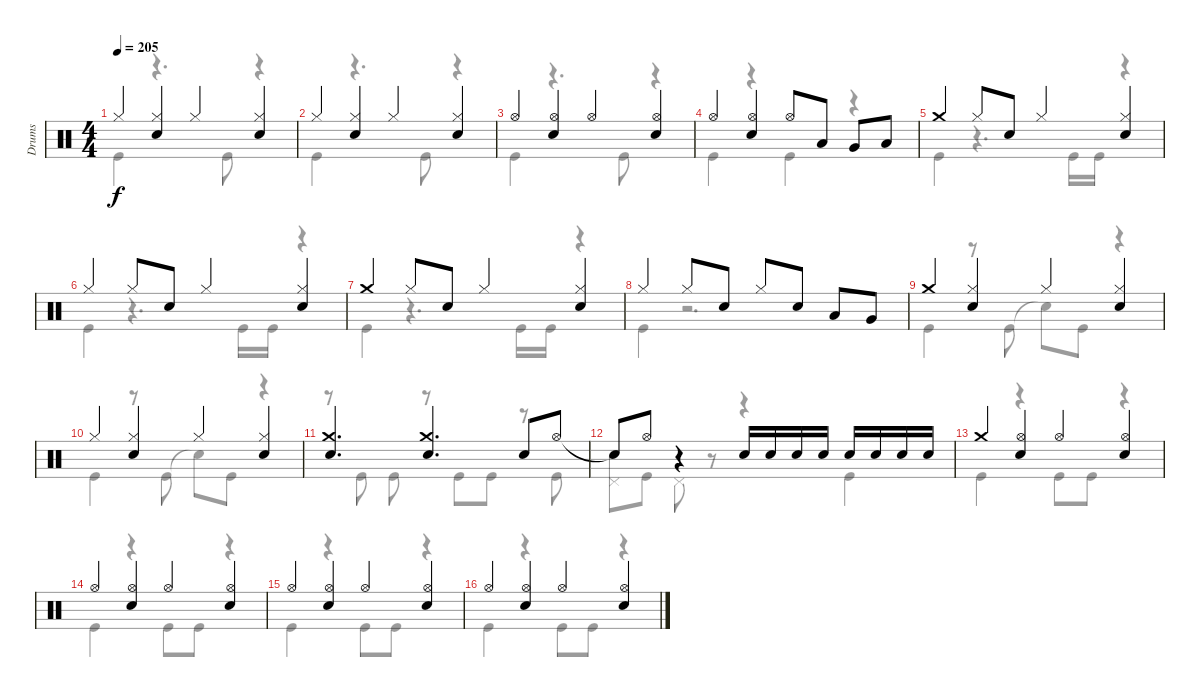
\track ("Drums" "Drums") {instrument percussion}
\staff {score}
\articulation defaults
\voice
\ts (4 4)
\tempo 205
\clef neutral
\ks c "Hi-Hat (closed)".4{dy f}
("Hi-Hat (closed)" "Snare (hit) 2").4 "Hi-Hat (closed)".4 ("Hi-Hat (closed)" "Snare (hit) 2").4 |
"Hi-Hat (closed)".4 ("Hi-Hat (closed)" "Snare (hit) 2").4 "Hi-Hat (closed)".4 ("Hi-Hat (closed)" "Snare (hit) 2").4 |
"Hi-Hat (open)".4 ("Hi-Hat (open)" "Snare (hit) 2").4 "Hi-Hat (open)".4 ("Hi-Hat (open)" "Snare (hit) 2").4 |
"Hi-Hat (open)".4 ("Hi-Hat (open)" "Snare (hit) 2").4 "Hi-Hat (open)".8 "Low Tom (hit)".8 "Very Low Tom (hit)".8 "Low Floor Tom (hit)".8 |
"Crash medium (hit)".4 "Hi-Hat (closed)".8 "Snare (hit) 2".8 "Hi-Hat (closed)".4 ("Hi-Hat (closed)" "Snare (hit) 2").4 |
"Hi-Hat (closed)".4 "Hi-Hat (closed)".8 "Snare (hit) 2".8 "Hi-Hat (closed)".4 ("Hi-Hat (closed)" "Snare (hit) 2").4 |
"Crash medium (hit)".4 "Hi-Hat (closed)".8 "Snare (hit) 2".8 "Hi-Hat (closed)".4 ("Hi-Hat (closed)" "Snare (hit) 2").4 |
"Hi-Hat (closed)".4 "Hi-Hat (closed)".8 "Snare (hit) 2".8 "Hi-Hat (closed)".8 "Snare (hit) 2".8 "Low Tom (hit)".8 "Very Low Tom (hit)".8 |
"Crash medium (hit)".4 ("Hi-Hat (closed)" "Snare (hit) 2").4 "Hi-Hat (closed)".4 ("Hi-Hat (closed)" "Snare (hit) 2").4 |
"Hi-Hat (closed)".4 ("Hi-Hat (closed)" "Snare (hit) 2").4 "Hi-Hat (closed)".4 ("Hi-Hat (closed)" "Snare (hit) 2").4 |
("Crash medium (hit)" "Snare (hit) 2").4{d} ("Crash medium (hit)" "Snare (hit) 2").4{d} "Snare (hit) 2".8 "Hi-Hat (open)".8 |
"Snare (hit)"{t}.8 "Hi-Hat (open)".8 r.4 "Snare (hit) 2".16 "Snare (hit) 2".16 "Snare (hit) 2".16 "Snare (hit) 2".16 "Snare (hit) 2".16 "Snare (hit) 2".16 "Snare (hit) 2".16 "Snare (hit) 2".16 |
"Crash medium (hit)".4 ("Hi-Hat (open)" "Snare (hit) 2").4 "Hi-Hat (open)".4 ("Hi-Hat (open)" "Snare (hit) 2").4 |
"Hi-Hat (open)".4 ("Hi-Hat (open)" "Snare (hit) 2").4 "Hi-Hat (open)".4 ("Hi-Hat (open)" "Snare (hit) 2").4 |
"Hi-Hat (open)".4 ("Hi-Hat (open)" "Snare (hit) 2").4 "Hi-Hat (open)".4 ("Hi-Hat (open)" "Snare (hit) 2").4 |
"Hi-Hat (open)".4 ("Hi-Hat (open)" "Snare (hit) 2").4 "Hi-Hat (open)".4 ("Hi-Hat (open)" "Snare (hit) 2").4
\voice
\clef neutral
\ottava regular
\simile none
\ks c "Kick (hit)".4{dy f}
r.4{d} "Kick (hit)".8 r.4 |
"Kick (hit)".4 r.4{d} "Kick (hit)".8 r.4 |
"Kick (hit)".4 r.4{d} "Kick (hit)".8 r.4 |
"Kick (hit)".4 r.4 "Kick (hit)".4 r.4 |
"Kick (hit)".4 r.4{d} "Kick (hit)".16 "Kick (hit)".16 r.4 |
"Kick (hit)".4 r.4{d} "Kick (hit)".16 "Kick (hit)".16 r.4 |
"Kick (hit)".4 r.4{d} "Kick (hit)".16 "Kick (hit)".16 r.4 |
"Kick (hit)".4 r.2{d} |
"Kick (hit)".4 r.8 "Kick (hit)".8 "Snare (hit)"{t}.8 "Kick (hit)".8 r.4 |
"Kick (hit)".4 r.8 "Kick (hit)".8 "Snare (hit)"{t}.8 "Kick (hit)".8 r.4 |
r.8 "Kick (hit)".8 "Kick (hit)".8 r.8 "Kick (hit)".8 "Kick (hit)".8 r.8 "Kick (hit)".8 |
("Pedal Hi-Hat (hit)" "Snare (hit)").8 "Kick (hit)".8 "Pedal Hi-Hat (hit)".8 r.8 r.4 "Kick (hit)".4 |
"Kick (hit)".4 r.4 "Kick (hit)".8 "Kick (hit)".8 r.4 |
"Kick (hit)".4 r.4 "Kick (hit)".8 "Kick (hit)".8 r.4 |
"Kick (hit)".4 r.4 "Kick (hit)".8 "Kick (hit)".8 r.4 |
"Kick (hit)".4 r.4 "Kick (hit)".8 "Kick (hit)".8 r.4
